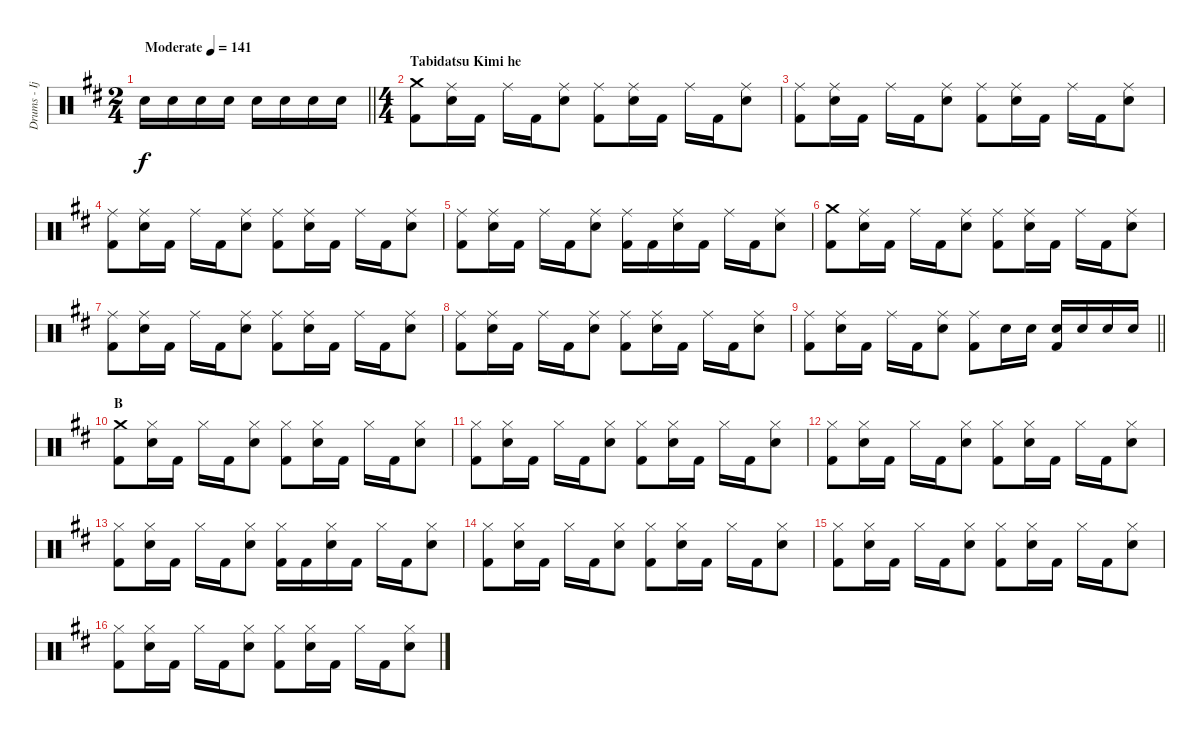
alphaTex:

\track ("Drums - Ijichi" "Drums - Ij") {instrument percussion}
\staff {score}
\articulation defaults
\ts (2 4)
\tempo (141 "Moderate")
\clef neutral
\barLineRight lightlight
\ks d "Electric Snare (hit)".16{dy f} "Electric Snare (hit)".16 "Electric Snare (hit)".16 "Electric Snare (hit)".16 "Electric Snare (hit)".16 "Electric Snare (hit)".16 "Electric Snare (hit)".16 "Electric Snare (hit)".16
|
\ts (4 4)
\section ("" "Tabidatsu Kimi he")
("Crash medium (hit)" "Kick (hit) 2").8 ("Ride (middle)" "Electric Snare (hit)").16 "Kick (hit) 2".16 "Ride (middle)".16 "Kick (hit) 2".16 ("Ride (middle)" "Electric Snare (hit)").8 ("Ride (middle)" "Kick (hit) 2").8 ("Ride (middle)" "Electric Snare (hit)").16 "Kick (hit) 2".16 "Ride (middle)".16 "Kick (hit) 2".16 ("Ride (middle)" "Electric Snare (hit)").8 |
("Ride (middle)" "Kick (hit) 2").8 ("Ride (middle)" "Electric Snare (hit)").16 "Kick (hit) 2".16 "Ride (middle)".16 "Kick (hit) 2".16 ("Ride (middle)" "Electric Snare (hit)").8 ("Ride (middle)" "Kick (hit) 2").8 ("Ride (middle)" "Electric Snare (hit)").16 "Kick (hit) 2".16 "Ride (middle)".16 "Kick (hit) 2".16 ("Ride (middle)" "Electric Snare (hit)").8 |
("Ride (middle)" "Kick (hit) 2").8 ("Ride (middle)" "Electric Snare (hit)").16 "Kick (hit) 2".16 "Ride (middle)".16 "Kick (hit) 2".16 ("Ride (middle)" "Electric Snare (hit)").8 ("Ride (middle)" "Kick (hit) 2").8 ("Ride (middle)" "Electric Snare (hit)").16 "Kick (hit) 2".16 "Ride (middle)".16 "Kick (hit) 2".16 ("Ride (middle)" "Electric Snare (hit)").8 |
("Ride (middle)" "Kick (hit) 2").8 ("Ride (middle)" "Electric Snare (hit)").16 "Kick (hit) 2".16 "Ride (middle)".16 "Kick (hit) 2".16 ("Ride (middle)" "Electric Snare (hit)").8 ("Ride (middle)" "Kick (hit) 2").16 "Kick (hit) 2".16 ("Ride (middle)" "Electric Snare (hit)").16 "Kick (hit) 2".16 "Ride (middle)".16 "Kick (hit) 2".16 ("Ride (middle)" "Electric Snare (hit)").8 |
("Crash medium (hit)" "Kick (hit) 2").8 ("Ride (middle)" "Electric Snare (hit)").16 "Kick (hit) 2".16 "Ride (middle)".16 "Kick (hit) 2".16 ("Ride (middle)" "Electric Snare (hit)").8 ("Ride (middle)" "Kick (hit) 2").8 ("Ride (middle)" "Electric Snare (hit)").16 "Kick (hit) 2".16 "Ride (middle)".16 "Kick (hit) 2".16 ("Ride (middle)" "Electric Snare (hit)").8 |
("Ride (middle)" "Kick (hit) 2").8 ("Ride (middle)" "Electric Snare (hit)").16 "Kick (hit) 2".16 "Ride (middle)".16 "Kick (hit) 2".16 ("Ride (middle)" "Electric Snare (hit)").8 ("Ride (middle)" "Kick (hit) 2").8 ("Ride (middle)" "Electric Snare (hit)").16 "Kick (hit) 2".16 "Ride (middle)".16 "Kick (hit) 2".16 ("Ride (middle)" "Electric Snare (hit)").8 |
("Ride (middle)" "Kick (hit) 2").8 ("Ride (middle)" "Electric Snare (hit)").16 "Kick (hit) 2".16 "Ride (middle)".16 "Kick (hit) 2".16 ("Ride (middle)" "Electric Snare (hit)").8 ("Ride (middle)" "Kick (hit) 2").8 ("Ride (middle)" "Electric Snare (hit)").16 "Kick (hit) 2".16 "Ride (middle)".16 "Kick (hit) 2".16 ("Ride (middle)" "Electric Snare (hit)").8 |
\barLineRight lightlight
("Ride (middle)" "Kick (hit) 2").8 ("Ride (middle)" "Electric Snare (hit)").16 "Kick (hit) 2".16 "Ride (middle)".16 "Kick (hit) 2".16 ("Ride (middle)" "Electric Snare (hit)").8 ("Ride (middle)" "Kick (hit) 2").8 "Electric Snare (hit)".16 "Electric Snare (hit)".16 ("Electric Snare (hit)" "Kick (hit) 2").16 "Electric Snare (hit)".16 "Electric Snare (hit)".16 "Electric Snare (hit)".16 |
\section ("" "B")
("Crash medium (hit)" "Kick (hit) 2").8 ("Hi-Hat (closed)" "Electric Snare (hit)").16 "Kick (hit) 2".16 "Hi-Hat (closed)".16 "Kick (hit) 2".16 ("Hi-Hat (closed)" "Electric Snare (hit)").8 ("Hi-Hat (closed)" "Kick (hit) 2").8 ("Hi-Hat (closed)" "Electric Snare (hit)").16 "Kick (hit) 2".16 "Hi-Hat (closed)".16 "Kick (hit) 2".16 ("Hi-Hat (closed)" "Electric Snare (hit)").8 |
("Hi-Hat (closed)" "Kick (hit) 2").8 ("Hi-Hat (closed)" "Electric Snare (hit)").16 "Kick (hit) 2".16 "Hi-Hat (closed)".16 "Kick (hit) 2".16 ("Hi-Hat (closed)" "Electric Snare (hit)").8 ("Hi-Hat (closed)" "Kick (hit) 2").8 ("Hi-Hat (closed)" "Electric Snare (hit)").16 "Kick (hit) 2".16 "Hi-Hat (closed)".16 "Kick (hit) 2".16 ("Hi-Hat (closed)" "Electric Snare (hit)").8 |
("Hi-Hat (closed)" "Kick (hit) 2").8 ("Hi-Hat (closed)" "Electric Snare (hit)").16 "Kick (hit) 2".16 "Hi-Hat (closed)".16 "Kick (hit) 2".16 ("Hi-Hat (closed)" "Electric Snare (hit)").8 ("Hi-Hat (closed)" "Kick (hit) 2").8 ("Hi-Hat (closed)" "Electric Snare (hit)").16 "Kick (hit) 2".16 "Hi-Hat (closed)".16 "Kick (hit) 2".16 ("Hi-Hat (closed)" "Electric Snare (hit)").8 |
("Hi-Hat (closed)" "Kick (hit) 2").8 ("Hi-Hat (closed)" "Electric Snare (hit)").16 "Kick (hit) 2".16 "Hi-Hat (closed)".16 "Kick (hit) 2".16 ("Hi-Hat (closed)" "Electric Snare (hit)").8 ("Hi-Hat (closed)" "Kick (hit) 2").16 "Kick (hit) 2".16 ("Hi-Hat (closed)" "Electric Snare (hit)").16 "Kick (hit) 2".16 "Hi-Hat (closed)".16 "Kick (hit) 2".16 ("Hi-Hat (closed)" "Electric Snare (hit)").8 |
("Hi-Hat (closed)" "Kick (hit) 2").8 ("Hi-Hat (closed)" "Electric Snare (hit)").16 "Kick (hit) 2".16 "Hi-Hat (closed)".16 "Kick (hit) 2".16 ("Hi-Hat (closed)" "Electric Snare (hit)").8 ("Hi-Hat (closed)" "Kick (hit) 2").8 ("Hi-Hat (closed)" "Electric Snare (hit)").16 "Kick (hit) 2".16 "Hi-Hat (closed)".16 "Kick (hit) 2".16 ("Hi-Hat (closed)" "Electric Snare (hit)").8 |
("Hi-Hat (closed)" "Kick (hit) 2").8 ("Hi-Hat (closed)" "Electric Snare (hit)").16 "Kick (hit) 2".16 "Hi-Hat (closed)".16 "Kick (hit) 2".16 ("Hi-Hat (closed)" "Electric Snare (hit)").8 ("Hi-Hat (closed)" "Kick (hit) 2").8 ("Hi-Hat (closed)" "Electric Snare (hit)").16 "Kick (hit) 2".16 "Hi-Hat (closed)".16 "Kick (hit) 2".16 ("Hi-Hat (closed)" "Electric Snare (hit)").8 |
("Hi-Hat (closed)" "Kick (hit) 2").8 ("Hi-Hat (closed)" "Electric Snare (hit)").16 "Kick (hit) 2".16 "Hi-Hat (closed)".16 "Kick (hit) 2".16 ("Hi-Hat (closed)" "Electric Snare (hit)").8 ("Hi-Hat (closed)" "Kick (hit) 2").8 ("Hi-Hat (closed)" "Electric Snare (hit)").16 "Kick (hit) 2".16 "Hi-Hat (closed)".16 "Kick (hit) 2".16 ("Hi-Hat (closed)" "Electric Snare (hit)").8
